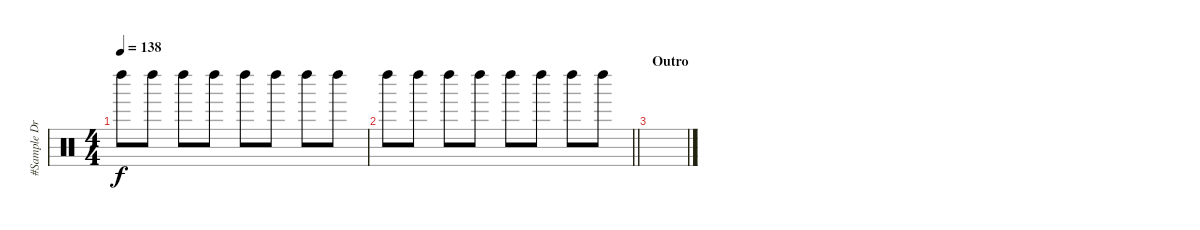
\track ("#Sample Drums" "#Sample Dr") {instrument percussion}
\staff {score}
\articulation defaults
\ts (4 4)
\tempo 138
\clef neutral
\ks c "Left Maraca (hit)".8{dy f} "Left Maraca (hit)".8 "Left Maraca (hit)".8 "Left Maraca (hit)".8 "Left Maraca (hit)".8 "Left Maraca (hit)".8 "Left Maraca (hit)".8 "Left Maraca (hit)".8
|
\barLineRight lightlight "Left Maraca (hit)".8 "Left Maraca (hit)".8 "Left Maraca (hit)".8 "Left Maraca (hit)".8 "Left Maraca (hit)".8 "Left Maraca (hit)".8 "Left Maraca (hit)".8 "Left Maraca (hit)".8
|
\section ("" "Outro")
